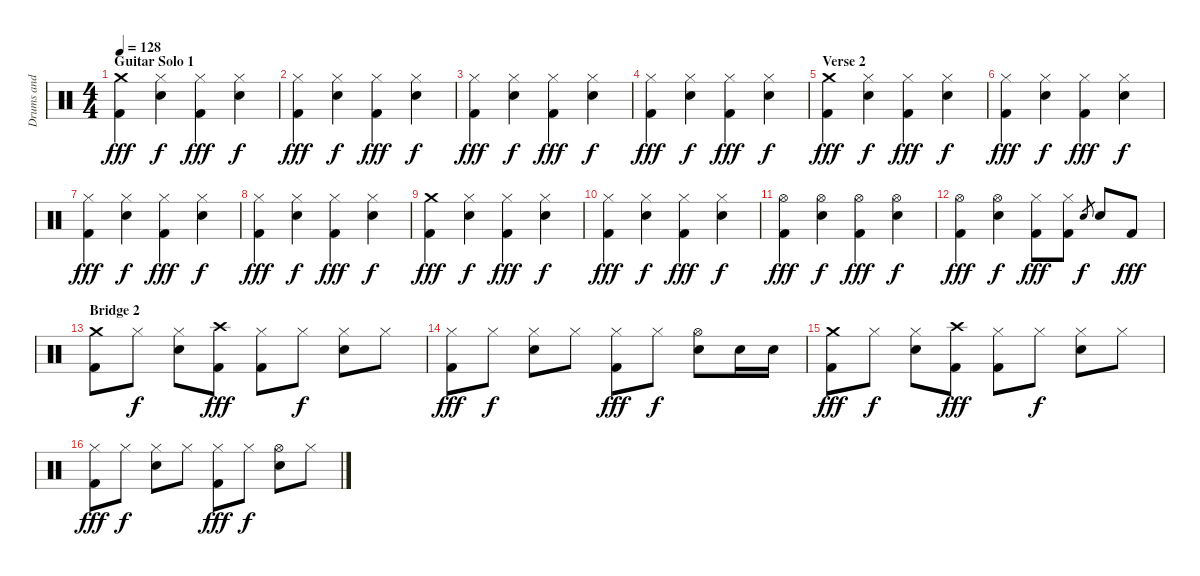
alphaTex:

\track ("Drums and Percussion" "Drums and ") {instrument percussion}
\staff {score}
\articulation defaults
\ts (4 4)
\section ("" "Guitar Solo 1")
\tempo 128
\clef neutral
\ks c
("Crash medium (hit)" "Kick (hit) 2").4{dy fff} ("Hi-Hat (closed)" "Electric Snare (hit)").4{dy f} ("Hi-Hat (closed)" "Kick (hit) 2").4{dy fff} ("Hi-Hat (closed)" "Electric Snare (hit)").4{dy f} |
("Hi-Hat (closed)" "Kick (hit) 2").4{dy fff} ("Hi-Hat (closed)" "Electric Snare (hit)").4{dy f} ("Hi-Hat (closed)" "Kick (hit) 2").4{dy fff} ("Hi-Hat (closed)" "Electric Snare (hit)").4{dy f} |
("Hi-Hat (closed)" "Kick (hit) 2").4{dy fff} ("Hi-Hat (closed)" "Electric Snare (hit)").4{dy f} ("Hi-Hat (closed)" "Kick (hit) 2").4{dy fff} ("Hi-Hat (closed)" "Electric Snare (hit)").4{dy f} |
("Hi-Hat (closed)" "Kick (hit) 2").4{dy fff} ("Hi-Hat (closed)" "Electric Snare (hit)").4{dy f} ("Hi-Hat (closed)" "Kick (hit) 2").4{dy fff} ("Hi-Hat (closed)" "Electric Snare (hit)").4{dy f} |
\section ("" "Verse 2")
("Crash medium (hit)" "Kick (hit) 2").4{dy fff} ("Hi-Hat (closed)" "Electric Snare (hit)").4{dy f} ("Hi-Hat (closed)" "Kick (hit) 2").4{dy fff} ("Hi-Hat (closed)" "Electric Snare (hit)").4{dy f} |
("Hi-Hat (closed)" "Kick (hit) 2").4{dy fff} ("Hi-Hat (closed)" "Electric Snare (hit)").4{dy f} ("Hi-Hat (closed)" "Kick (hit) 2").4{dy fff} ("Hi-Hat (closed)" "Electric Snare (hit)").4{dy f} |
("Hi-Hat (closed)" "Kick (hit) 2").4{dy fff} ("Hi-Hat (closed)" "Electric Snare (hit)").4{dy f} ("Hi-Hat (closed)" "Kick (hit) 2").4{dy fff} ("Hi-Hat (closed)" "Electric Snare (hit)").4{dy f} |
("Hi-Hat (closed)" "Kick (hit) 2").4{dy fff} ("Hi-Hat (closed)" "Electric Snare (hit)").4{dy f} ("Hi-Hat (closed)" "Kick (hit) 2").4{dy fff} ("Hi-Hat (closed)" "Electric Snare (hit)").4{dy f} |
("Crash medium (hit)" "Kick (hit) 2").4{dy fff} ("Hi-Hat (closed)" "Electric Snare (hit)").4{dy f} ("Hi-Hat (closed)" "Kick (hit) 2").4{dy fff} ("Hi-Hat (closed)" "Electric Snare (hit)").4{dy f} |
("Hi-Hat (closed)" "Kick (hit) 2").4{dy fff} ("Hi-Hat (closed)" "Electric Snare (hit)").4{dy f} ("Hi-Hat (closed)" "Kick (hit) 2").4{dy fff} ("Hi-Hat (closed)" "Electric Snare (hit)").4{dy f} |
("Hi-Hat (open)" "Kick (hit) 2").4{dy fff} ("Hi-Hat (open)" "Electric Snare (hit)").4{dy f} ("Hi-Hat (open)" "Kick (hit) 2").4{dy fff} ("Hi-Hat (open)" "Electric Snare (hit)").4{dy f} |
("Hi-Hat (open)" "Kick (hit) 2").4{dy fff} ("Hi-Hat (open)" "Electric Snare (hit)").4{dy f} ("Hi-Hat (closed)" "Kick (hit) 2").8{dy fff} ("Hi-Hat (closed)" "Kick (hit) 2").8 "Electric Snare (hit)".8{gr dy f} "Electric Snare (hit)".8 "Kick (hit) 2".8{dy fff} |
\section ("" "Bridge 2")
("Crash medium (hit)" "Kick (hit) 2").8 "Hi-Hat (closed)".8{dy f} ("Hi-Hat (closed)" "Electric Snare (hit)").8 ("Crash high (hit)" "Kick (hit) 2").8{dy fff} ("Hi-Hat (closed)" "Kick (hit) 2").8 "Hi-Hat (closed)".8{dy f} ("Hi-Hat (closed)" "Electric Snare (hit)").8 "Hi-Hat (closed)".8 |
("Hi-Hat (closed)" "Kick (hit) 2").8{dy fff} "Hi-Hat (closed)".8{dy f} ("Hi-Hat (closed)" "Electric Snare (hit)").8 "Hi-Hat (closed)".8 ("Hi-Hat (closed)" "Kick (hit) 2").8{dy fff} "Hi-Hat (closed)".8{dy f} ("Hi-Hat (open)" "Electric Snare (hit)").8 "Electric Snare (hit)".16 "Electric Snare (hit)".16 |
("Crash medium (hit)" "Kick (hit) 2").8{dy fff} "Hi-Hat (closed)".8{dy f} ("Hi-Hat (closed)" "Electric Snare (hit)").8 ("Crash high (hit)" "Kick (hit) 2").8{dy fff} ("Hi-Hat (closed)" "Kick (hit) 2").8 "Hi-Hat (closed)".8{dy f} ("Hi-Hat (closed)" "Electric Snare (hit)").8 "Hi-Hat (closed)".8 |
("Hi-Hat (closed)" "Kick (hit) 2").8{dy fff} "Hi-Hat (closed)".8{dy f} ("Hi-Hat (closed)" "Electric Snare (hit)").8 "Hi-Hat (closed)".8 ("Hi-Hat (closed)" "Kick (hit) 2").8{dy fff} "Hi-Hat (closed)".8{dy f} ("Hi-Hat (open)" "Electric Snare (hit)").8 "Hi-Hat (closed)".8
